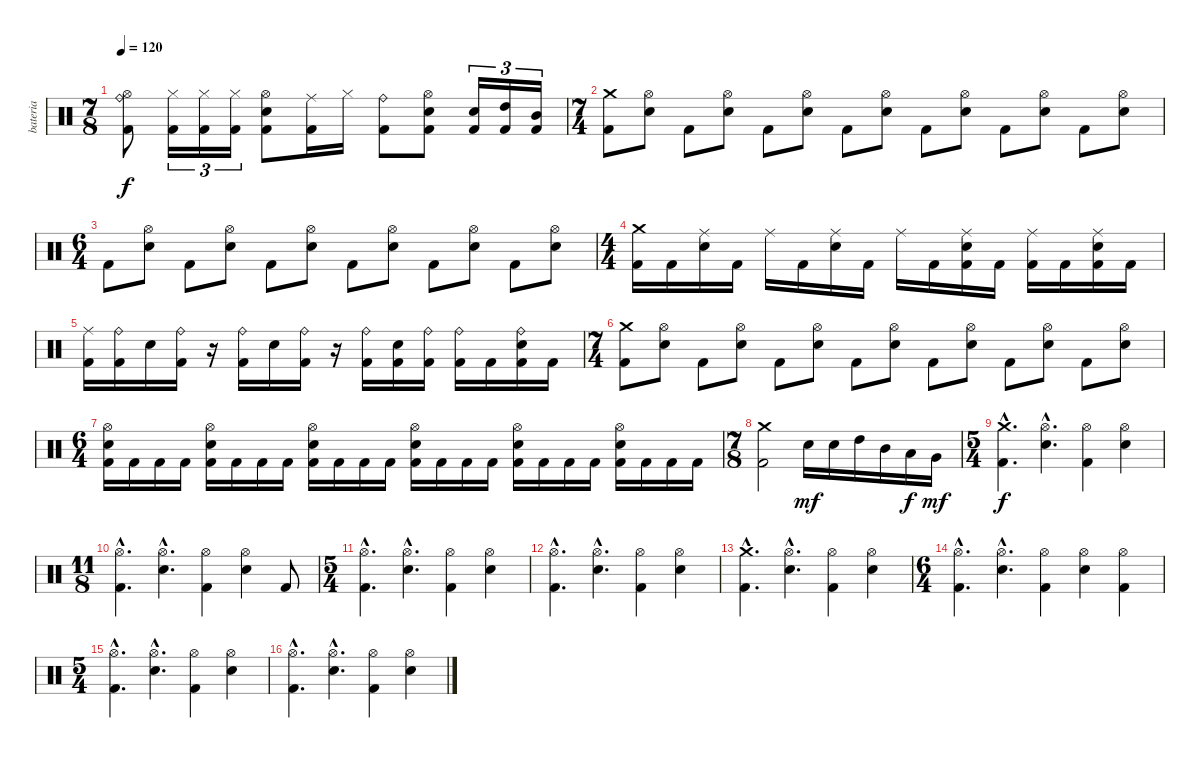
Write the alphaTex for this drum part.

\track ("bateria" "bateria") {instrument percussion}
\staff {score}
\articulation defaults
\ts (7 8)
\tempo 120
\clef neutral
\ks c
("Ride (bell)" "Hi-Hat (open)" "Kick (hit) 2").8{dy f} ("Hi-Hat (closed)" "Kick (hit) 2").16{tu (3 2)} ("Hi-Hat (closed)" "Kick (hit) 2").16{tu (3 2)} ("Hi-Hat (closed)" "Kick (hit) 2").16{tu (3 2)} ("Hi-Hat (open)" "Electric Snare (hit)" "Kick (hit) 2").8 ("Ride (middle)" "Kick (hit) 2").16 "Hi-Hat (closed)".16 ("Ride (bell)" "Kick (hit) 2").8 ("Hi-Hat (open)" "Electric Snare (hit)" "Kick (hit) 2").8 ("Electric Snare (hit)" "Kick (hit) 2").16{tu (3 2)} ("High Tom (hit)" "Kick (hit) 2").16{tu (3 2)} ("Mid Tom (hit)" "Kick (hit) 2").16{tu (3 2)} |
\ts (7 4)
("Crash medium (hit)" "Kick (hit) 2").8 ("Hi-Hat (open)" "Electric Snare (hit)").8 "Kick (hit) 2".8 ("Hi-Hat (open)" "Electric Snare (hit)").8 "Kick (hit) 2".8 ("Hi-Hat (open)" "Electric Snare (hit)").8 "Kick (hit) 2".8 ("Hi-Hat (open)" "Electric Snare (hit)").8 "Kick (hit) 2".8 ("Hi-Hat (open)" "Electric Snare (hit)").8 "Kick (hit) 2".8 ("Hi-Hat (open)" "Electric Snare (hit)").8 "Kick (hit) 2".8 ("Hi-Hat (open)" "Electric Snare (hit)").8 |
\ts (6 4)
"Kick (hit) 2".8 ("Hi-Hat (open)" "Electric Snare (hit)").8 "Kick (hit) 2".8 ("Hi-Hat (open)" "Electric Snare (hit)").8 "Kick (hit) 2".8 ("Hi-Hat (open)" "Electric Snare (hit)").8 "Kick (hit) 2".8 ("Hi-Hat (open)" "Electric Snare (hit)").8 "Kick (hit) 2".8 ("Hi-Hat (open)" "Electric Snare (hit)").8 "Kick (hit) 2".8 ("Hi-Hat (open)" "Electric Snare (hit)").8 |
\ts (4 4)
("Crash medium (hit)" "Kick (hit) 2").16 "Kick (hit) 2".16 ("Ride (middle)" "Electric Snare (hit)").16 "Kick (hit) 2".16 "Ride (middle)".16 "Kick (hit) 2".16 ("Ride (middle)" "Electric Snare (hit)").16 "Kick (hit) 2".16 "Ride (middle)".16 "Kick (hit) 2".16 ("Ride (middle)" "Electric Snare (hit)" "Kick (hit) 2").16 "Kick (hit) 2".16 ("Ride (middle)" "Kick (hit) 2").16 "Kick (hit) 2".16 ("Ride (middle)" "Electric Snare (hit)" "Kick (hit) 2").16 "Kick (hit) 2".16 |
("Ride (middle)" "Kick (hit) 2").16 ("Ride (bell)" "Kick (hit) 2").16 "Electric Snare (hit)".16 ("Ride (bell)" "Kick (hit) 2").16 r.16 ("Ride (bell)" "Kick (hit) 2").16 "Electric Snare (hit)".16 ("Ride (bell)" "Kick (hit) 2").16 r.16 ("Ride (bell)" "Kick (hit) 2").16 ("Electric Snare (hit)" "Kick (hit) 2").16 ("Ride (bell)" "Kick (hit) 2").16 ("Ride (bell)" "Kick (hit) 2").16 "Kick (hit) 2".16 ("Ride (bell)" "Electric Snare (hit)" "Kick (hit) 2").16 "Kick (hit) 2".16 |
\ts (7 4)
("Crash medium (hit)" "Kick (hit) 2").8 ("Hi-Hat (open)" "Electric Snare (hit)").8 "Kick (hit) 2".8 ("Hi-Hat (open)" "Electric Snare (hit)").8 "Kick (hit) 2".8 ("Hi-Hat (open)" "Electric Snare (hit)").8 "Kick (hit) 2".8 ("Hi-Hat (open)" "Electric Snare (hit)").8 "Kick (hit) 2".8 ("Hi-Hat (open)" "Electric Snare (hit)").8 "Kick (hit) 2".8 ("Hi-Hat (open)" "Electric Snare (hit)").8 "Kick (hit) 2".8 ("Hi-Hat (open)" "Electric Snare (hit)").8 |
\ts (6 4)
("Hi-Hat (open)" "Electric Snare (hit)" "Kick (hit) 2").16 "Kick (hit) 2".16 "Kick (hit) 2".16 "Kick (hit) 2".16 ("Hi-Hat (open)" "Electric Snare (hit)" "Kick (hit) 2").16 "Kick (hit) 2".16 "Kick (hit) 2".16 "Kick (hit) 2".16 ("Hi-Hat (open)" "Electric Snare (hit)" "Kick (hit) 2").16 "Kick (hit) 2".16 "Kick (hit) 2".16 "Kick (hit) 2".16 ("Hi-Hat (open)" "Electric Snare (hit)" "Kick (hit) 2").16 "Kick (hit) 2".16 "Kick (hit) 2".16 "Kick (hit) 2".16 ("Hi-Hat (open)" "Electric Snare (hit)" "Kick (hit) 2").16 "Kick (hit) 2".16 "Kick (hit) 2".16 "Kick (hit) 2".16 ("Hi-Hat (open)" "Electric Snare (hit)" "Kick (hit) 2").16 "Kick (hit) 2".16 "Kick (hit) 2".16 "Kick (hit) 2".16 |
\ts (7 8)
("Crash medium (hit)" "Kick (hit) 2").2 "Electric Snare (hit)".16{dy mf} "Electric Snare (hit)".16 "High Tom (hit)".16 "Mid Tom (hit)".16 "Low Tom (hit)".16{dy f} "Very Low Tom (hit)".16{dy mf} |
\ts (5 4)
("Crash medium (hit)"{hac} "Kick (hit) 2"{hac}).4{d dy f} ("Hi-Hat (open)"{hac} "Electric Snare (hit)"{hac}).4{d} ("Hi-Hat (open)" "Kick (hit) 2").4 ("Hi-Hat (open)" "Electric Snare (hit)").4 |
\ts (11 8)
("Hi-Hat (open)"{hac} "Kick (hit) 2"{hac}).4{d} ("Hi-Hat (open)"{hac} "Electric Snare (hit)"{hac}).4{d} ("Hi-Hat (open)" "Kick (hit) 2").4 ("Hi-Hat (open)" "Electric Snare (hit)").4 "Kick (hit) 2".8 |
\ts (5 4)
("Hi-Hat (open)"{hac} "Kick (hit) 2"{hac}).4{d} ("Hi-Hat (open)"{hac} "Electric Snare (hit)"{hac}).4{d} ("Hi-Hat (open)" "Kick (hit) 2").4 ("Hi-Hat (open)" "Electric Snare (hit)").4 |
("Hi-Hat (open)"{hac} "Kick (hit) 2"{hac}).4{d} ("Hi-Hat (open)"{hac} "Electric Snare (hit)"{hac}).4{d} ("Hi-Hat (open)" "Kick (hit) 2").4 ("Hi-Hat (open)" "Electric Snare (hit)").4 |
("Crash medium (hit)"{hac} "Kick (hit) 2"{hac}).4{d} ("Hi-Hat (open)"{hac} "Electric Snare (hit)"{hac}).4{d} ("Hi-Hat (open)" "Kick (hit) 2").4 ("Hi-Hat (open)" "Electric Snare (hit)").4 |
\ts (6 4)
("Hi-Hat (open)"{hac} "Kick (hit) 2"{hac}).4{d} ("Hi-Hat (open)"{hac} "Electric Snare (hit)"{hac}).4{d} ("Hi-Hat (open)" "Kick (hit) 2").4 ("Hi-Hat (open)" "Electric Snare (hit)").4 ("Hi-Hat (open)" "Kick (hit) 2").4 |
\ts (5 4)
("Hi-Hat (open)"{hac} "Kick (hit) 2"{hac}).4{d} ("Hi-Hat (open)"{hac} "Electric Snare (hit)"{hac}).4{d} ("Hi-Hat (open)" "Kick (hit) 2").4 ("Hi-Hat (open)" "Electric Snare (hit)").4 |
("Hi-Hat (open)"{hac} "Kick (hit) 2"{hac}).4{d} ("Hi-Hat (open)"{hac} "Electric Snare (hit)"{hac}).4{d} ("Hi-Hat (open)" "Kick (hit) 2").4 ("Hi-Hat (open)" "Electric Snare (hit)").4
